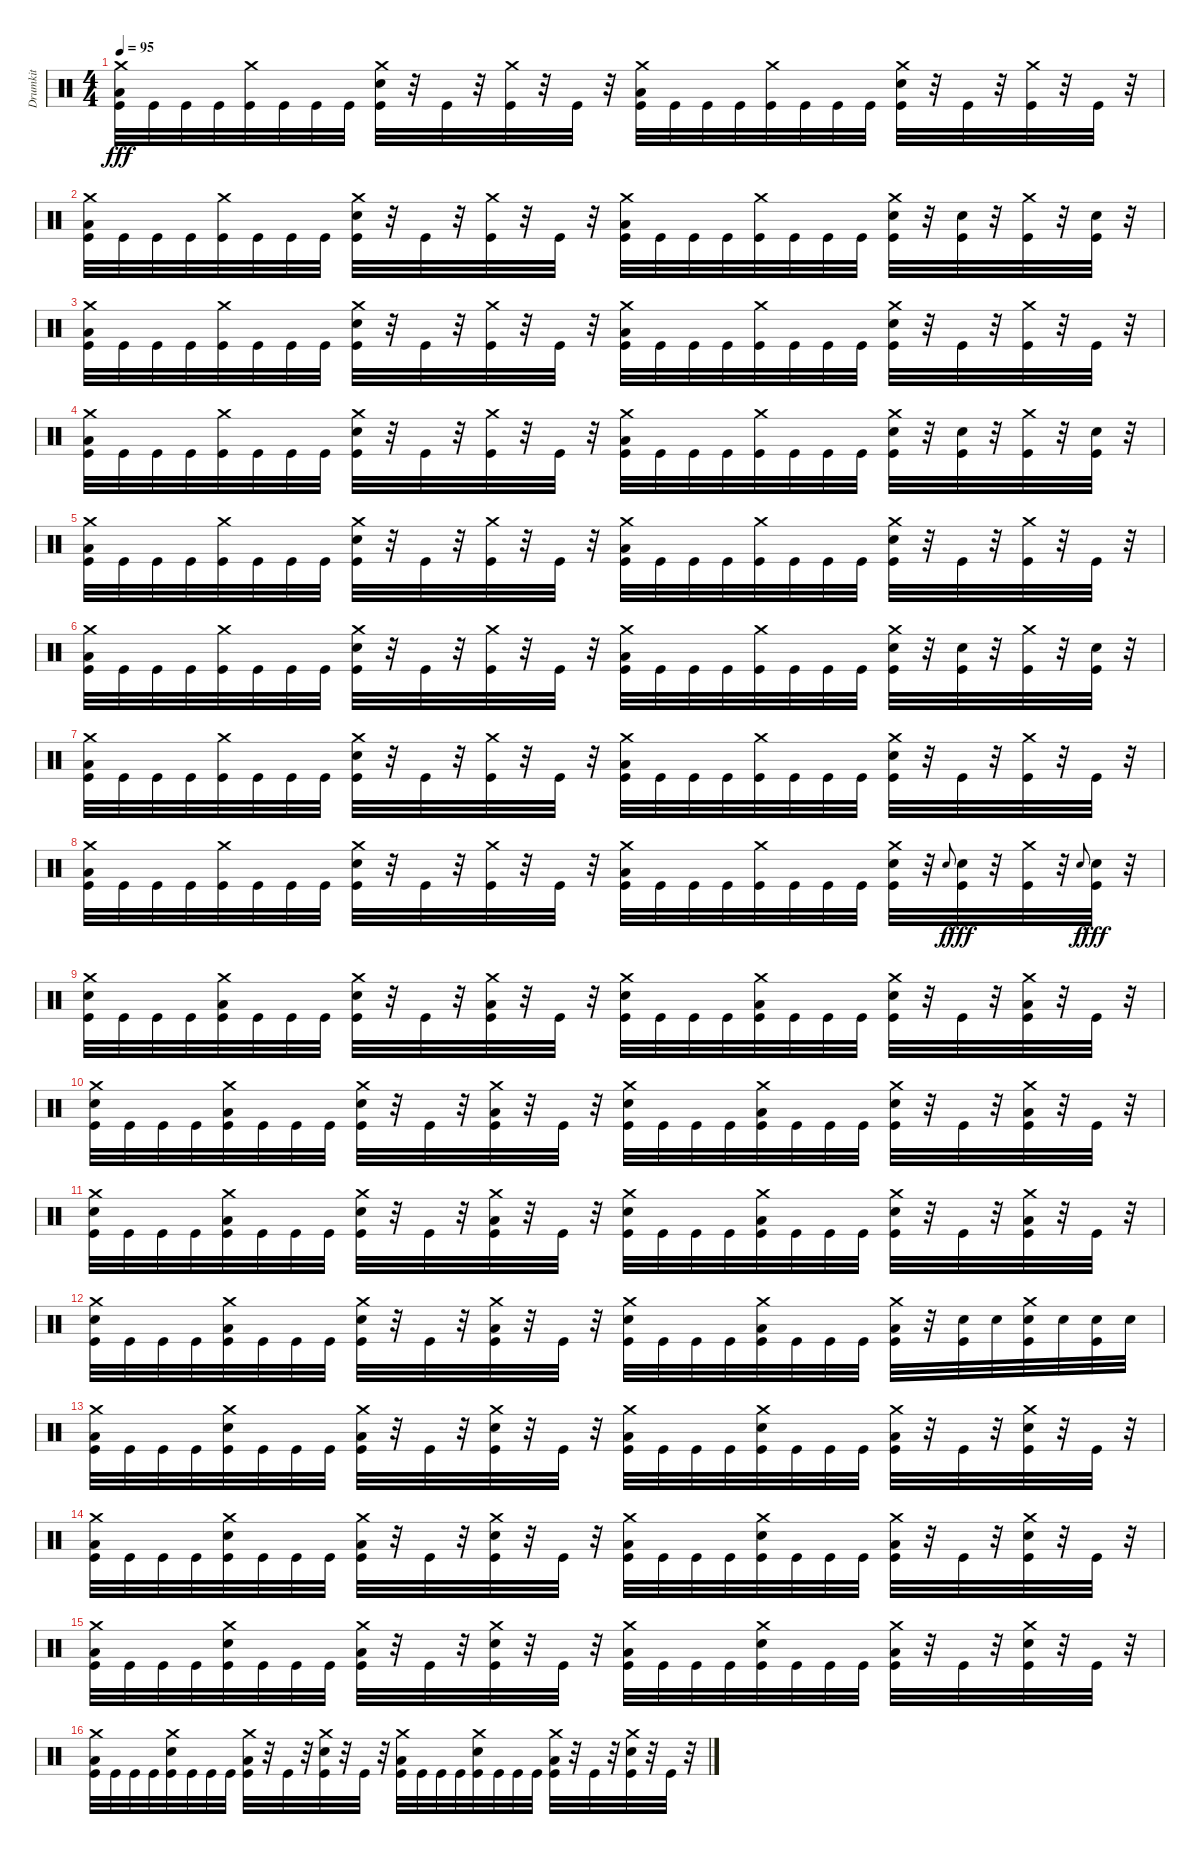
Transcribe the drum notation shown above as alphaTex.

\track ("Drumkit" "Drumkit") {instrument percussion}
\staff {score}
\articulation defaults
\ts (4 4)
\tempo 95
\clef neutral
\ks c
("Crash medium (hit)" "Low Floor Tom (hit)" "Kick (hit)").32{dy fff} "Kick (hit)".32 "Kick (hit)".32 "Kick (hit)".32 ("Crash medium (hit)" "Kick (hit)").32 "Kick (hit)".32 "Kick (hit)".32 "Kick (hit)".32 ("Crash medium (hit)" "Snare (hit) 2" "Kick (hit)").32 r.32 "Kick (hit)".32 r.32 ("Crash medium (hit)" "Kick (hit)").32 r.32 "Kick (hit)".32 r.32 ("Crash medium (hit)" "Low Floor Tom (hit)" "Kick (hit)").32 "Kick (hit)".32 "Kick (hit)".32 "Kick (hit)".32 ("Crash medium (hit)" "Kick (hit)").32 "Kick (hit)".32 "Kick (hit)".32 "Kick (hit)".32 ("Crash medium (hit)" "Snare (hit) 2" "Kick (hit)").32 r.32 "Kick (hit)".32 r.32 ("Crash medium (hit)" "Kick (hit)").32 r.32 "Kick (hit)".32 r.32 |
("Crash medium (hit)" "Low Floor Tom (hit)" "Kick (hit)").32 "Kick (hit)".32 "Kick (hit)".32 "Kick (hit)".32 ("Crash medium (hit)" "Kick (hit)").32 "Kick (hit)".32 "Kick (hit)".32 "Kick (hit)".32 ("Crash medium (hit)" "Snare (hit) 2" "Kick (hit)").32 r.32 "Kick (hit)".32 r.32 ("Crash medium (hit)" "Kick (hit)").32 r.32 "Kick (hit)".32 r.32 ("Crash medium (hit)" "Low Floor Tom (hit)" "Kick (hit)").32 "Kick (hit)".32 "Kick (hit)".32 "Kick (hit)".32 ("Crash medium (hit)" "Kick (hit)").32 "Kick (hit)".32 "Kick (hit)".32 "Kick (hit)".32 ("Crash medium (hit)" "Snare (hit) 2" "Kick (hit)").32 r.32 ("Snare (hit) 2" "Kick (hit)").32 r.32 ("Crash medium (hit)" "Kick (hit)").32 r.32 ("Snare (hit) 2" "Kick (hit)").32 r.32 |
("Crash medium (hit)" "Low Floor Tom (hit)" "Kick (hit)").32 "Kick (hit)".32 "Kick (hit)".32 "Kick (hit)".32 ("Crash medium (hit)" "Kick (hit)").32 "Kick (hit)".32 "Kick (hit)".32 "Kick (hit)".32 ("Crash medium (hit)" "Snare (hit) 2" "Kick (hit)").32 r.32 "Kick (hit)".32 r.32 ("Crash medium (hit)" "Kick (hit)").32 r.32 "Kick (hit)".32 r.32 ("Crash medium (hit)" "Low Floor Tom (hit)" "Kick (hit)").32 "Kick (hit)".32 "Kick (hit)".32 "Kick (hit)".32 ("Crash medium (hit)" "Kick (hit)").32 "Kick (hit)".32 "Kick (hit)".32 "Kick (hit)".32 ("Crash medium (hit)" "Snare (hit) 2" "Kick (hit)").32 r.32 "Kick (hit)".32 r.32 ("Crash medium (hit)" "Kick (hit)").32 r.32 "Kick (hit)".32 r.32 |
("Crash medium (hit)" "Low Floor Tom (hit)" "Kick (hit)").32 "Kick (hit)".32 "Kick (hit)".32 "Kick (hit)".32 ("Crash medium (hit)" "Kick (hit)").32 "Kick (hit)".32 "Kick (hit)".32 "Kick (hit)".32 ("Crash medium (hit)" "Snare (hit) 2" "Kick (hit)").32 r.32 "Kick (hit)".32 r.32 ("Crash medium (hit)" "Kick (hit)").32 r.32 "Kick (hit)".32 r.32 ("Crash medium (hit)" "Low Floor Tom (hit)" "Kick (hit)").32 "Kick (hit)".32 "Kick (hit)".32 "Kick (hit)".32 ("Crash medium (hit)" "Kick (hit)").32 "Kick (hit)".32 "Kick (hit)".32 "Kick (hit)".32 ("Crash medium (hit)" "Snare (hit) 2" "Kick (hit)").32 r.32 ("Snare (hit) 2" "Kick (hit)").32 r.32 ("Crash medium (hit)" "Kick (hit)").32 r.32 ("Snare (hit) 2" "Kick (hit)").32 r.32 |
("Crash medium (hit)" "Low Floor Tom (hit)" "Kick (hit)").32 "Kick (hit)".32 "Kick (hit)".32 "Kick (hit)".32 ("Crash medium (hit)" "Kick (hit)").32 "Kick (hit)".32 "Kick (hit)".32 "Kick (hit)".32 ("Crash medium (hit)" "Snare (hit) 2" "Kick (hit)").32 r.32 "Kick (hit)".32 r.32 ("Crash medium (hit)" "Kick (hit)").32 r.32 "Kick (hit)".32 r.32 ("Crash medium (hit)" "Low Floor Tom (hit)" "Kick (hit)").32 "Kick (hit)".32 "Kick (hit)".32 "Kick (hit)".32 ("Crash medium (hit)" "Kick (hit)").32 "Kick (hit)".32 "Kick (hit)".32 "Kick (hit)".32 ("Crash medium (hit)" "Snare (hit) 2" "Kick (hit)").32 r.32 "Kick (hit)".32 r.32 ("Crash medium (hit)" "Kick (hit)").32 r.32 "Kick (hit)".32 r.32 |
("Crash medium (hit)" "Low Floor Tom (hit)" "Kick (hit)").32 "Kick (hit)".32 "Kick (hit)".32 "Kick (hit)".32 ("Crash medium (hit)" "Kick (hit)").32 "Kick (hit)".32 "Kick (hit)".32 "Kick (hit)".32 ("Crash medium (hit)" "Snare (hit) 2" "Kick (hit)").32 r.32 "Kick (hit)".32 r.32 ("Crash medium (hit)" "Kick (hit)").32 r.32 "Kick (hit)".32 r.32 ("Crash medium (hit)" "Low Floor Tom (hit)" "Kick (hit)").32 "Kick (hit)".32 "Kick (hit)".32 "Kick (hit)".32 ("Crash medium (hit)" "Kick (hit)").32 "Kick (hit)".32 "Kick (hit)".32 "Kick (hit)".32 ("Crash medium (hit)" "Snare (hit) 2" "Kick (hit)").32 r.32 ("Snare (hit) 2" "Kick (hit)").32 r.32 ("Crash medium (hit)" "Kick (hit)").32 r.32 ("Snare (hit) 2" "Kick (hit)").32 r.32 |
("Crash medium (hit)" "Low Floor Tom (hit)" "Kick (hit)").32 "Kick (hit)".32 "Kick (hit)".32 "Kick (hit)".32 ("Crash medium (hit)" "Kick (hit)").32 "Kick (hit)".32 "Kick (hit)".32 "Kick (hit)".32 ("Crash medium (hit)" "Snare (hit) 2" "Kick (hit)").32 r.32 "Kick (hit)".32 r.32 ("Crash medium (hit)" "Kick (hit)").32 r.32 "Kick (hit)".32 r.32 ("Crash medium (hit)" "Low Floor Tom (hit)" "Kick (hit)").32 "Kick (hit)".32 "Kick (hit)".32 "Kick (hit)".32 ("Crash medium (hit)" "Kick (hit)").32 "Kick (hit)".32 "Kick (hit)".32 "Kick (hit)".32 ("Crash medium (hit)" "Snare (hit) 2" "Kick (hit)").32 r.32 "Kick (hit)".32 r.32 ("Crash medium (hit)" "Kick (hit)").32 r.32 "Kick (hit)".32 r.32 |
("Crash medium (hit)" "Low Floor Tom (hit)" "Kick (hit)").32 "Kick (hit)".32 "Kick (hit)".32 "Kick (hit)".32 ("Crash medium (hit)" "Kick (hit)").32 "Kick (hit)".32 "Kick (hit)".32 "Kick (hit)".32 ("Crash medium (hit)" "Snare (hit) 2" "Kick (hit)").32 r.32 "Kick (hit)".32 r.32 ("Crash medium (hit)" "Kick (hit)").32 r.32 "Kick (hit)".32 r.32 ("Crash medium (hit)" "Low Floor Tom (hit)" "Kick (hit)").32 "Kick (hit)".32 "Kick (hit)".32 "Kick (hit)".32 ("Crash medium (hit)" "Kick (hit)").32 "Kick (hit)".32 "Kick (hit)".32 "Kick (hit)".32 ("Crash medium (hit)" "Snare (hit) 2" "Kick (hit)").32 r.32 "Snare (hit)".8{gr onbeat dy f} ("Snare (hit) 2" "Kick (hit)").32{dy fff} r.32 ("Crash medium (hit)" "Kick (hit)").32 r.32 "Snare (hit)".8{gr onbeat dy f} ("Snare (hit) 2" "Kick (hit)").32{dy fff} r.32 |
("Crash medium (hit)" "Snare (hit) 2" "Kick (hit)").32 "Kick (hit)".32 "Kick (hit)".32 "Kick (hit)".32 ("Crash medium (hit)" "Low Floor Tom (hit)" "Kick (hit)").32 "Kick (hit)".32 "Kick (hit)".32 "Kick (hit)".32 ("Crash medium (hit)" "Snare (hit) 2" "Kick (hit)").32 r.32 "Kick (hit)".32 r.32 ("Crash medium (hit)" "Low Floor Tom (hit)" "Kick (hit)").32 r.32 "Kick (hit)".32 r.32 ("Crash medium (hit)" "Snare (hit) 2" "Kick (hit)").32 "Kick (hit)".32 "Kick (hit)".32 "Kick (hit)".32 ("Crash medium (hit)" "Low Floor Tom (hit)" "Kick (hit)").32 "Kick (hit)".32 "Kick (hit)".32 "Kick (hit)".32 ("Crash medium (hit)" "Snare (hit) 2" "Kick (hit)").32 r.32 "Kick (hit)".32 r.32 ("Crash medium (hit)" "Low Floor Tom (hit)" "Kick (hit)").32 r.32 "Kick (hit)".32 r.32 |
("Crash medium (hit)" "Snare (hit) 2" "Kick (hit)").32 "Kick (hit)".32 "Kick (hit)".32 "Kick (hit)".32 ("Crash medium (hit)" "Low Floor Tom (hit)" "Kick (hit)").32 "Kick (hit)".32 "Kick (hit)".32 "Kick (hit)".32 ("Crash medium (hit)" "Snare (hit) 2" "Kick (hit)").32 r.32 "Kick (hit)".32 r.32 ("Crash medium (hit)" "Low Floor Tom (hit)" "Kick (hit)").32 r.32 "Kick (hit)".32 r.32 ("Crash medium (hit)" "Snare (hit) 2" "Kick (hit)").32 "Kick (hit)".32 "Kick (hit)".32 "Kick (hit)".32 ("Crash medium (hit)" "Low Floor Tom (hit)" "Kick (hit)").32 "Kick (hit)".32 "Kick (hit)".32 "Kick (hit)".32 ("Crash medium (hit)" "Snare (hit) 2" "Kick (hit)").32 r.32 "Kick (hit)".32 r.32 ("Crash medium (hit)" "Low Floor Tom (hit)" "Kick (hit)").32 r.32 "Kick (hit)".32 r.32 |
("Crash medium (hit)" "Snare (hit) 2" "Kick (hit)").32 "Kick (hit)".32 "Kick (hit)".32 "Kick (hit)".32 ("Crash medium (hit)" "Low Floor Tom (hit)" "Kick (hit)").32 "Kick (hit)".32 "Kick (hit)".32 "Kick (hit)".32 ("Crash medium (hit)" "Snare (hit) 2" "Kick (hit)").32 r.32 "Kick (hit)".32 r.32 ("Crash medium (hit)" "Low Floor Tom (hit)" "Kick (hit)").32 r.32 "Kick (hit)".32 r.32 ("Crash medium (hit)" "Snare (hit) 2" "Kick (hit)").32 "Kick (hit)".32 "Kick (hit)".32 "Kick (hit)".32 ("Crash medium (hit)" "Low Floor Tom (hit)" "Kick (hit)").32 "Kick (hit)".32 "Kick (hit)".32 "Kick (hit)".32 ("Crash medium (hit)" "Snare (hit) 2" "Kick (hit)").32 r.32 "Kick (hit)".32 r.32 ("Crash medium (hit)" "Low Floor Tom (hit)" "Kick (hit)").32 r.32 "Kick (hit)".32 r.32 |
("Crash medium (hit)" "Snare (hit) 2" "Kick (hit)").32 "Kick (hit)".32 "Kick (hit)".32 "Kick (hit)".32 ("Crash medium (hit)" "Low Floor Tom (hit)" "Kick (hit)").32 "Kick (hit)".32 "Kick (hit)".32 "Kick (hit)".32 ("Crash medium (hit)" "Snare (hit) 2" "Kick (hit)").32 r.32 "Kick (hit)".32 r.32 ("Crash medium (hit)" "Low Floor Tom (hit)" "Kick (hit)").32 r.32 "Kick (hit)".32 r.32 ("Crash medium (hit)" "Snare (hit) 2" "Kick (hit)").32 "Kick (hit)".32 "Kick (hit)".32 "Kick (hit)".32 ("Crash medium (hit)" "Low Floor Tom (hit)" "Kick (hit)").32 "Kick (hit)".32 "Kick (hit)".32 "Kick (hit)".32 ("Crash medium (hit)" "Low Floor Tom (hit)" "Kick (hit)").32 r.32 ("Snare (hit) 2" "Kick (hit)").32 "Snare (hit) 2".32 ("Crash medium (hit)" "Snare (hit) 2" "Kick (hit)").32 "Snare (hit) 2".32 ("Snare (hit) 2" "Kick (hit)").32 "Snare (hit) 2".32 |
("Crash medium (hit)" "Low Floor Tom (hit)" "Kick (hit)").32 "Kick (hit)".32 "Kick (hit)".32 "Kick (hit)".32 ("Crash medium (hit)" "Snare (hit) 2" "Kick (hit)").32 "Kick (hit)".32 "Kick (hit)".32 "Kick (hit)".32 ("Crash medium (hit)" "Low Floor Tom (hit)" "Kick (hit)").32 r.32 "Kick (hit)".32 r.32 ("Crash medium (hit)" "Snare (hit) 2" "Kick (hit)").32 r.32 "Kick (hit)".32 r.32 ("Crash medium (hit)" "Low Floor Tom (hit)" "Kick (hit)").32 "Kick (hit)".32 "Kick (hit)".32 "Kick (hit)".32 ("Crash medium (hit)" "Snare (hit) 2" "Kick (hit)").32 "Kick (hit)".32 "Kick (hit)".32 "Kick (hit)".32 ("Crash medium (hit)" "Low Floor Tom (hit)" "Kick (hit)").32 r.32 "Kick (hit)".32 r.32 ("Crash medium (hit)" "Snare (hit) 2" "Kick (hit)").32 r.32 "Kick (hit)".32 r.32 |
("Crash medium (hit)" "Low Floor Tom (hit)" "Kick (hit)").32 "Kick (hit)".32 "Kick (hit)".32 "Kick (hit)".32 ("Crash medium (hit)" "Snare (hit) 2" "Kick (hit)").32 "Kick (hit)".32 "Kick (hit)".32 "Kick (hit)".32 ("Crash medium (hit)" "Low Floor Tom (hit)" "Kick (hit)").32 r.32 "Kick (hit)".32 r.32 ("Crash medium (hit)" "Snare (hit) 2" "Kick (hit)").32 r.32 "Kick (hit)".32 r.32 ("Crash medium (hit)" "Low Floor Tom (hit)" "Kick (hit)").32 "Kick (hit)".32 "Kick (hit)".32 "Kick (hit)".32 ("Crash medium (hit)" "Snare (hit) 2" "Kick (hit)").32 "Kick (hit)".32 "Kick (hit)".32 "Kick (hit)".32 ("Crash medium (hit)" "Low Floor Tom (hit)" "Kick (hit)").32 r.32 "Kick (hit)".32 r.32 ("Crash medium (hit)" "Snare (hit) 2" "Kick (hit)").32 r.32 "Kick (hit)".32 r.32 |
("Crash medium (hit)" "Low Floor Tom (hit)" "Kick (hit)").32 "Kick (hit)".32 "Kick (hit)".32 "Kick (hit)".32 ("Crash medium (hit)" "Snare (hit) 2" "Kick (hit)").32 "Kick (hit)".32 "Kick (hit)".32 "Kick (hit)".32 ("Crash medium (hit)" "Low Floor Tom (hit)" "Kick (hit)").32 r.32 "Kick (hit)".32 r.32 ("Crash medium (hit)" "Snare (hit) 2" "Kick (hit)").32 r.32 "Kick (hit)".32 r.32 ("Crash medium (hit)" "Low Floor Tom (hit)" "Kick (hit)").32 "Kick (hit)".32 "Kick (hit)".32 "Kick (hit)".32 ("Crash medium (hit)" "Snare (hit) 2" "Kick (hit)").32 "Kick (hit)".32 "Kick (hit)".32 "Kick (hit)".32 ("Crash medium (hit)" "Low Floor Tom (hit)" "Kick (hit)").32 r.32 "Kick (hit)".32 r.32 ("Crash medium (hit)" "Snare (hit) 2" "Kick (hit)").32 r.32 "Kick (hit)".32 r.32 |
("Crash medium (hit)" "Low Floor Tom (hit)" "Kick (hit)").32 "Kick (hit)".32 "Kick (hit)".32 "Kick (hit)".32 ("Crash medium (hit)" "Snare (hit) 2" "Kick (hit)").32 "Kick (hit)".32 "Kick (hit)".32 "Kick (hit)".32 ("Crash medium (hit)" "Low Floor Tom (hit)" "Kick (hit)").32 r.32 "Kick (hit)".32 r.32 ("Crash medium (hit)" "Snare (hit) 2" "Kick (hit)").32 r.32 "Kick (hit)".32 r.32 ("Crash medium (hit)" "Low Floor Tom (hit)" "Kick (hit)").32 "Kick (hit)".32 "Kick (hit)".32 "Kick (hit)".32 ("Crash medium (hit)" "Snare (hit) 2" "Kick (hit)").32 "Kick (hit)".32 "Kick (hit)".32 "Kick (hit)".32 ("Crash medium (hit)" "Low Floor Tom (hit)" "Kick (hit)").32 r.32 "Kick (hit)".32 r.32 ("Crash medium (hit)" "Snare (hit) 2" "Kick (hit)").32 r.32 "Kick (hit)".32 r.32
